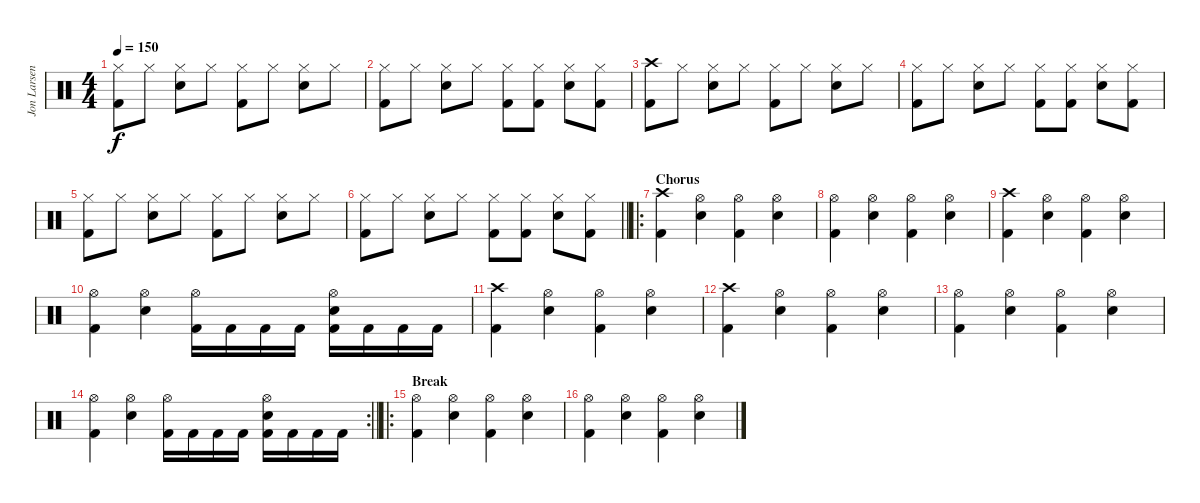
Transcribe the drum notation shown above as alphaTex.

\track ("Jon Larsen" "Jon Larsen") {instrument percussion}
\staff {score}
\articulation defaults
\ts (4 4)
\tempo 150
\clef neutral
\ks c
("Hi-Hat (closed)" "Kick (hit) 2").8{dy f} "Hi-Hat (closed)".8 ("Hi-Hat (closed)" "Electric Snare (hit)").8 "Hi-Hat (closed)".8 ("Hi-Hat (closed)" "Kick (hit) 2").8 "Hi-Hat (closed)".8 ("Hi-Hat (closed)" "Electric Snare (hit)").8 "Hi-Hat (closed)".8 |
("Hi-Hat (closed)" "Kick (hit) 2").8 "Hi-Hat (closed)".8 ("Hi-Hat (closed)" "Electric Snare (hit)").8 "Hi-Hat (closed)".8 ("Hi-Hat (closed)" "Kick (hit) 2").8 ("Hi-Hat (closed)" "Kick (hit) 2").8 ("Hi-Hat (closed)" "Electric Snare (hit)").8 ("Hi-Hat (closed)" "Kick (hit) 2").8 |
("Crash high (hit)" "Kick (hit) 2").8 "Hi-Hat (closed)".8 ("Hi-Hat (closed)" "Electric Snare (hit)").8 "Hi-Hat (closed)".8 ("Hi-Hat (closed)" "Kick (hit) 2").8 "Hi-Hat (closed)".8 ("Hi-Hat (closed)" "Electric Snare (hit)").8 "Hi-Hat (closed)".8 |
("Hi-Hat (closed)" "Kick (hit) 2").8 "Hi-Hat (closed)".8 ("Hi-Hat (closed)" "Electric Snare (hit)").8 "Hi-Hat (closed)".8 ("Hi-Hat (closed)" "Kick (hit) 2").8 ("Hi-Hat (closed)" "Kick (hit) 2").8 ("Hi-Hat (closed)" "Electric Snare (hit)").8 ("Hi-Hat (closed)" "Kick (hit) 2").8 |
("Hi-Hat (closed)" "Kick (hit) 2").8 "Hi-Hat (closed)".8 ("Hi-Hat (closed)" "Electric Snare (hit)").8 "Hi-Hat (closed)".8 ("Hi-Hat (closed)" "Kick (hit) 2").8 "Hi-Hat (closed)".8 ("Hi-Hat (closed)" "Electric Snare (hit)").8 "Hi-Hat (closed)".8 |
\barLineRight lightlight
("Hi-Hat (closed)" "Kick (hit) 2").8 "Hi-Hat (closed)".8 ("Hi-Hat (closed)" "Electric Snare (hit)").8 "Hi-Hat (closed)".8 ("Hi-Hat (closed)" "Kick (hit) 2").8 ("Hi-Hat (closed)" "Kick (hit) 2").8 ("Hi-Hat (closed)" "Electric Snare (hit)").8 ("Hi-Hat (closed)" "Kick (hit) 2").8 |
\ro
\section ("" "Chorus")
("Crash high (hit)" "Kick (hit) 2").4 ("Hi-Hat (open)" "Electric Snare (hit)").4 ("Hi-Hat (open)" "Kick (hit) 2").4 ("Hi-Hat (open)" "Electric Snare (hit)").4 |
("Hi-Hat (open)" "Kick (hit) 2").4 ("Hi-Hat (open)" "Electric Snare (hit)").4 ("Hi-Hat (open)" "Kick (hit) 2").4 ("Hi-Hat (open)" "Electric Snare (hit)").4 |
("Crash high (hit)" "Kick (hit) 2").4 ("Hi-Hat (open)" "Electric Snare (hit)").4 ("Hi-Hat (open)" "Kick (hit) 2").4 ("Hi-Hat (open)" "Electric Snare (hit)").4 |
("Hi-Hat (open)" "Kick (hit) 2").4 ("Hi-Hat (open)" "Electric Snare (hit)").4 ("Hi-Hat (open)" "Kick (hit) 2").16 "Kick (hit) 2".16 "Kick (hit) 2".16 "Kick (hit) 2".16 ("Hi-Hat (open)" "Electric Snare (hit)" "Kick (hit) 2").16 "Kick (hit) 2".16 "Kick (hit) 2".16 "Kick (hit) 2".16 |
("Crash high (hit)" "Kick (hit) 2").4 ("Hi-Hat (open)" "Electric Snare (hit)").4 ("Hi-Hat (open)" "Kick (hit) 2").4 ("Hi-Hat (open)" "Electric Snare (hit)").4 |
("Crash high (hit)" "Kick (hit) 2").4 ("Hi-Hat (open)" "Electric Snare (hit)").4 ("Hi-Hat (open)" "Kick (hit) 2").4 ("Hi-Hat (open)" "Electric Snare (hit)").4 |
("Hi-Hat (open)" "Kick (hit) 2").4 ("Hi-Hat (open)" "Electric Snare (hit)").4 ("Hi-Hat (open)" "Kick (hit) 2").4 ("Hi-Hat (open)" "Electric Snare (hit)").4 |
\rc 2
\barLineRight lightlight
("Hi-Hat (open)" "Kick (hit) 2").4 ("Hi-Hat (open)" "Electric Snare (hit)").4 ("Hi-Hat (open)" "Kick (hit) 2").16 "Kick (hit) 2".16 "Kick (hit) 2".16 "Kick (hit) 2".16 ("Hi-Hat (open)" "Electric Snare (hit)" "Kick (hit) 2").16 "Kick (hit) 2".16 "Kick (hit) 2".16 "Kick (hit) 2".16 |
\ro
\section ("" "Break")
("Hi-Hat (open)" "Kick (hit) 2").4 ("Hi-Hat (open)" "Electric Snare (hit)").4 ("Hi-Hat (open)" "Kick (hit) 2").4 ("Hi-Hat (open)" "Electric Snare (hit)").4 |
("Hi-Hat (open)" "Kick (hit) 2").4 ("Hi-Hat (open)" "Electric Snare (hit)").4 ("Hi-Hat (open)" "Kick (hit) 2").4 ("Hi-Hat (open)" "Electric Snare (hit)").4
